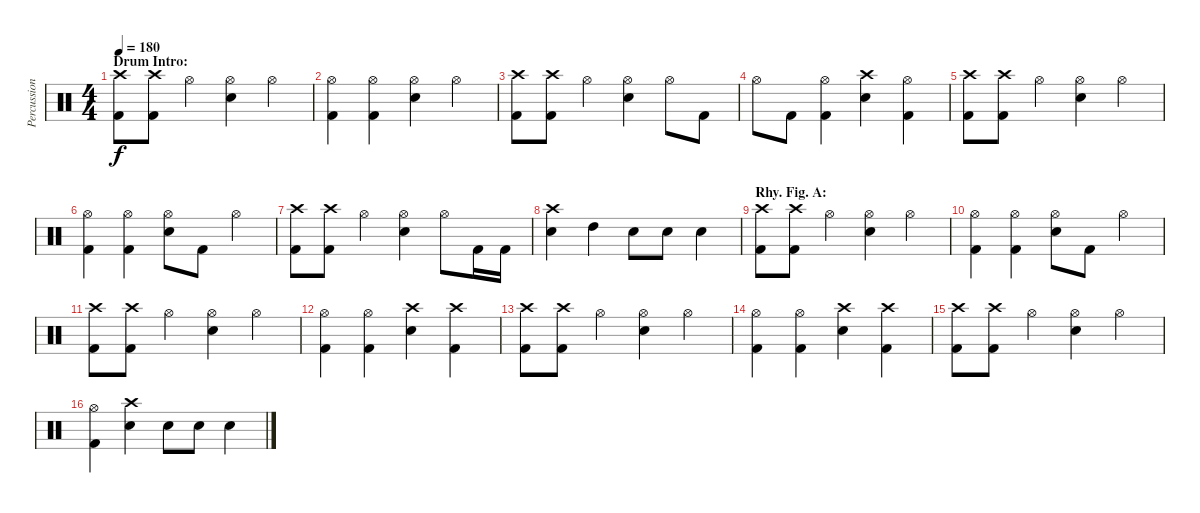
\track ("Percussion" "Percussion") {instrument percussion}
\staff {score}
\articulation defaults
\ts (4 4)
\section ("" "Drum Intro:")
\tempo 180
\clef neutral
\ks c
("Crash high (hit)" "Kick (hit) 2").8{dy f} ("Crash high (hit)" "Kick (hit) 2").8 "Hi-Hat (open)".4 ("Hi-Hat (open)" "Snare (hit) 2").4 "Hi-Hat (open)".4 |
("Hi-Hat (open)" "Kick (hit) 2").4 ("Hi-Hat (open)" "Kick (hit) 2").4 ("Hi-Hat (open)" "Snare (hit) 2").4 "Hi-Hat (open)".4 |
("Crash high (hit)" "Kick (hit) 2").8 ("Crash high (hit)" "Kick (hit) 2").8 "Hi-Hat (open)".4 ("Hi-Hat (open)" "Snare (hit) 2").4 "Hi-Hat (open)".8 "Kick (hit) 2".8 |
"Hi-Hat (open)".8 "Kick (hit) 2".8 ("Hi-Hat (open)" "Kick (hit) 2").4 ("Crash high (hit)" "Snare (hit) 2").4 ("Hi-Hat (open)" "Kick (hit) 2").4 |
("Crash high (hit)" "Kick (hit) 2").8 ("Crash high (hit)" "Kick (hit) 2").8 "Hi-Hat (open)".4 ("Hi-Hat (open)" "Snare (hit) 2").4 "Hi-Hat (open)".4 |
("Hi-Hat (open)" "Kick (hit) 2").4 ("Hi-Hat (open)" "Kick (hit) 2").4 ("Hi-Hat (open)" "Snare (hit) 2").8 "Kick (hit) 2".8 "Hi-Hat (open)".4 |
("Crash high (hit)" "Kick (hit) 2").8 ("Crash high (hit)" "Kick (hit) 2").8 "Hi-Hat (open)".4 ("Hi-Hat (open)" "Snare (hit) 2").4 "Hi-Hat (open)".8 "Kick (hit) 2".16 "Kick (hit) 2".16 |
("Crash high (hit)" "Snare (hit) 2").4 "High Tom (hit)".4 "Snare (hit) 2".8 "Snare (hit) 2".8 "Snare (hit) 2".4 |
\section ("" "Rhy. Fig. A:")
("Crash high (hit)" "Kick (hit) 2").8 ("Crash high (hit)" "Kick (hit) 2").8 "Hi-Hat (open)".4 ("Hi-Hat (open)" "Snare (hit) 2").4 "Hi-Hat (open)".4 |
("Hi-Hat (open)" "Kick (hit) 2").4 ("Hi-Hat (open)" "Kick (hit) 2").4 ("Hi-Hat (open)" "Snare (hit) 2").8 "Kick (hit) 2".8 "Hi-Hat (open)".4 |
("Crash high (hit)" "Kick (hit) 2").8 ("Crash high (hit)" "Kick (hit) 2").8 "Hi-Hat (open)".4 ("Hi-Hat (open)" "Snare (hit) 2").4 "Hi-Hat (open)".4 |
("Hi-Hat (open)" "Kick (hit) 2").4 ("Hi-Hat (open)" "Kick (hit) 2").4 ("Crash high (hit)" "Snare (hit) 2").4 ("Crash high (hit)" "Kick (hit) 2").4 |
("Crash high (hit)" "Kick (hit) 2").8 ("Crash high (hit)" "Kick (hit) 2").8 "Hi-Hat (open)".4 ("Hi-Hat (open)" "Snare (hit) 2").4 "Hi-Hat (open)".4 |
("Hi-Hat (open)" "Kick (hit) 2").4 ("Hi-Hat (open)" "Kick (hit) 2").4 ("Crash high (hit)" "Snare (hit) 2").4 ("Crash high (hit)" "Kick (hit) 2").4 |
("Crash high (hit)" "Kick (hit) 2").8 ("Crash high (hit)" "Kick (hit) 2").8 "Hi-Hat (open)".4 ("Hi-Hat (open)" "Snare (hit) 2").4 "Hi-Hat (open)".4 |
("Hi-Hat (open)" "Kick (hit) 2").4 ("Crash high (hit)" "Snare (hit) 2").4 "Snare (hit) 2".8 "Snare (hit) 2".8 "Snare (hit) 2".4
